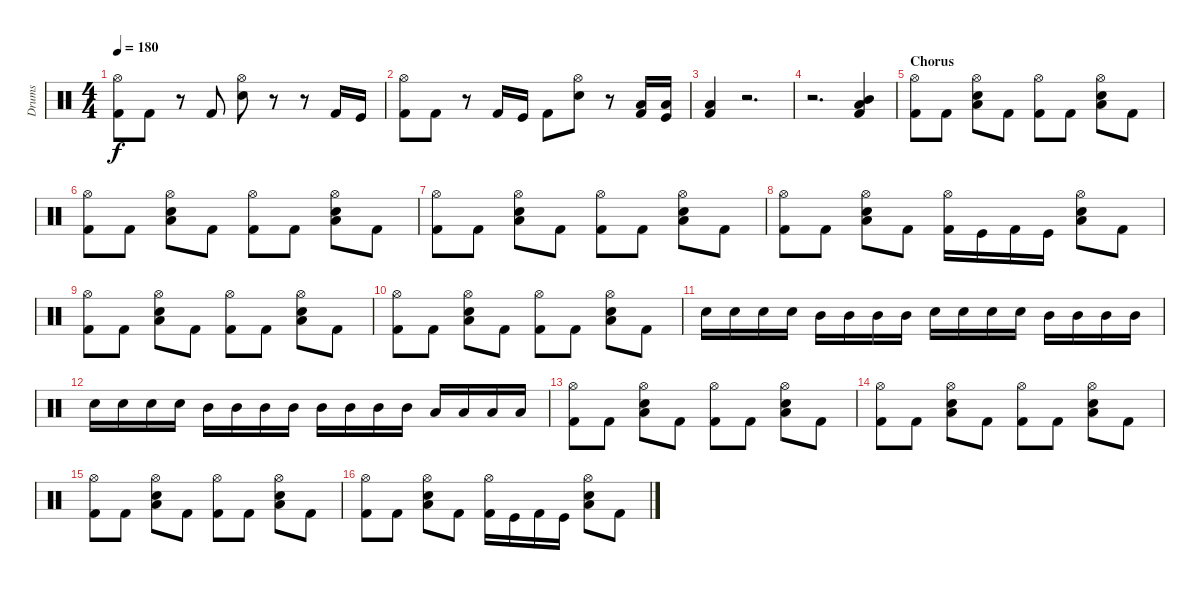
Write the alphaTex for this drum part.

\track ("Drums" "Drums") {instrument percussion}
\staff {score}
\articulation defaults
\ts (4 4)
\tempo 180
\clef neutral
\ks c
("Hi-Hat (open)" "Kick (hit) 2").8{dy f} "Kick (hit) 2".8 r.8 "Kick (hit) 2".8 ("Hi-Hat (open)" "Electric Snare (hit)").8 r.8 r.8 "Kick (hit) 2".16 "Kick (hit)".16 |
("Hi-Hat (open)" "Kick (hit) 2").8 "Kick (hit) 2".8 r.8 "Kick (hit) 2".16 "Kick (hit)".16 "Kick (hit) 2".8 ("Hi-Hat (open)" "Electric Snare (hit)").8 r.8 ("Low Tom (hit)" "Kick (hit) 2").16 ("Low Tom (hit)" "Kick (hit)").16 |
("Low Tom (hit)" "Kick (hit) 2").4 r.2{d} |
r.2{d} ("Mid Tom (hit)" "Low Tom (hit)" "Kick (hit) 2").4 |
\section ("" "Chorus")
("Hi-Hat (open)" "Kick (hit) 2").8 "Kick (hit) 2".8 ("Hi-Hat (open)" "Electric Snare (hit)" "Low Tom (hit)").8 "Kick (hit) 2".8 ("Hi-Hat (open)" "Kick (hit) 2").8 "Kick (hit) 2".8 ("Hi-Hat (open)" "Electric Snare (hit)" "Low Tom (hit)").8 "Kick (hit) 2".8 |
("Hi-Hat (open)" "Kick (hit) 2").8 "Kick (hit) 2".8 ("Hi-Hat (open)" "Electric Snare (hit)" "Low Tom (hit)").8 "Kick (hit) 2".8 ("Hi-Hat (open)" "Kick (hit) 2").8 "Kick (hit) 2".8 ("Hi-Hat (open)" "Electric Snare (hit)" "Low Tom (hit)").8 "Kick (hit) 2".8 |
("Hi-Hat (open)" "Kick (hit) 2").8 "Kick (hit) 2".8 ("Hi-Hat (open)" "Electric Snare (hit)" "Low Tom (hit)").8 "Kick (hit) 2".8 ("Hi-Hat (open)" "Kick (hit) 2").8 "Kick (hit) 2".8 ("Hi-Hat (open)" "Electric Snare (hit)" "Low Tom (hit)").8 "Kick (hit) 2".8 |
("Hi-Hat (open)" "Kick (hit) 2").8 "Kick (hit) 2".8 ("Hi-Hat (open)" "Electric Snare (hit)" "Low Tom (hit)").8 "Kick (hit) 2".8 ("Hi-Hat (open)" "Kick (hit) 2").16 "Kick (hit)".16 "Kick (hit) 2".16 "Kick (hit)".16 ("Hi-Hat (open)" "Electric Snare (hit)" "Low Tom (hit)").8 "Kick (hit) 2".8 |
("Hi-Hat (open)" "Kick (hit) 2").8 "Kick (hit) 2".8 ("Hi-Hat (open)" "Electric Snare (hit)" "Low Tom (hit)").8 "Kick (hit) 2".8 ("Hi-Hat (open)" "Kick (hit) 2").8 "Kick (hit) 2".8 ("Hi-Hat (open)" "Electric Snare (hit)" "Low Tom (hit)").8 "Kick (hit) 2".8 |
("Hi-Hat (open)" "Kick (hit) 2").8 "Kick (hit) 2".8 ("Hi-Hat (open)" "Electric Snare (hit)" "Low Tom (hit)").8 "Kick (hit) 2".8 ("Hi-Hat (open)" "Kick (hit) 2").8 "Kick (hit) 2".8 ("Hi-Hat (open)" "Electric Snare (hit)" "Low Tom (hit)").8 "Kick (hit) 2".8 |
"Electric Snare (hit)".16 "Electric Snare (hit)".16 "Electric Snare (hit)".16 "Electric Snare (hit)".16 "Mid Tom (hit)".16 "Mid Tom (hit)".16 "Mid Tom (hit)".16 "Mid Tom (hit)".16 "Electric Snare (hit)".16 "Electric Snare (hit)".16 "Electric Snare (hit)".16 "Electric Snare (hit)".16 "Mid Tom (hit)".16 "Mid Tom (hit)".16 "Mid Tom (hit)".16 "Mid Tom (hit)".16 |
"Electric Snare (hit)".16 "Electric Snare (hit)".16 "Electric Snare (hit)".16 "Electric Snare (hit)".16 "Mid Tom (hit)".16 "Mid Tom (hit)".16 "Mid Tom (hit)".16 "Mid Tom (hit)".16 "Mid Tom (hit)".16 "Mid Tom (hit)".16 "Mid Tom (hit)".16 "Mid Tom (hit)".16 "Low Tom (hit)".16 "Low Tom (hit)".16 "Low Tom (hit)".16 "Low Tom (hit)".16 |
("Hi-Hat (open)" "Kick (hit) 2").8 "Kick (hit) 2".8 ("Hi-Hat (open)" "Electric Snare (hit)" "Low Tom (hit)").8 "Kick (hit) 2".8 ("Hi-Hat (open)" "Kick (hit) 2").8 "Kick (hit) 2".8 ("Hi-Hat (open)" "Electric Snare (hit)" "Low Tom (hit)").8 "Kick (hit) 2".8 |
("Hi-Hat (open)" "Kick (hit) 2").8 "Kick (hit) 2".8 ("Hi-Hat (open)" "Electric Snare (hit)" "Low Tom (hit)").8 "Kick (hit) 2".8 ("Hi-Hat (open)" "Kick (hit) 2").8 "Kick (hit) 2".8 ("Hi-Hat (open)" "Electric Snare (hit)" "Low Tom (hit)").8 "Kick (hit) 2".8 |
("Hi-Hat (open)" "Kick (hit) 2").8 "Kick (hit) 2".8 ("Hi-Hat (open)" "Electric Snare (hit)" "Low Tom (hit)").8 "Kick (hit) 2".8 ("Hi-Hat (open)" "Kick (hit) 2").8 "Kick (hit) 2".8 ("Hi-Hat (open)" "Electric Snare (hit)" "Low Tom (hit)").8 "Kick (hit) 2".8 |
("Hi-Hat (open)" "Kick (hit) 2").8 "Kick (hit) 2".8 ("Hi-Hat (open)" "Electric Snare (hit)" "Low Tom (hit)").8 "Kick (hit) 2".8 ("Hi-Hat (open)" "Kick (hit) 2").16 "Kick (hit)".16 "Kick (hit) 2".16 "Kick (hit)".16 ("Hi-Hat (open)" "Electric Snare (hit)" "Low Tom (hit)").8 "Kick (hit) 2".8
